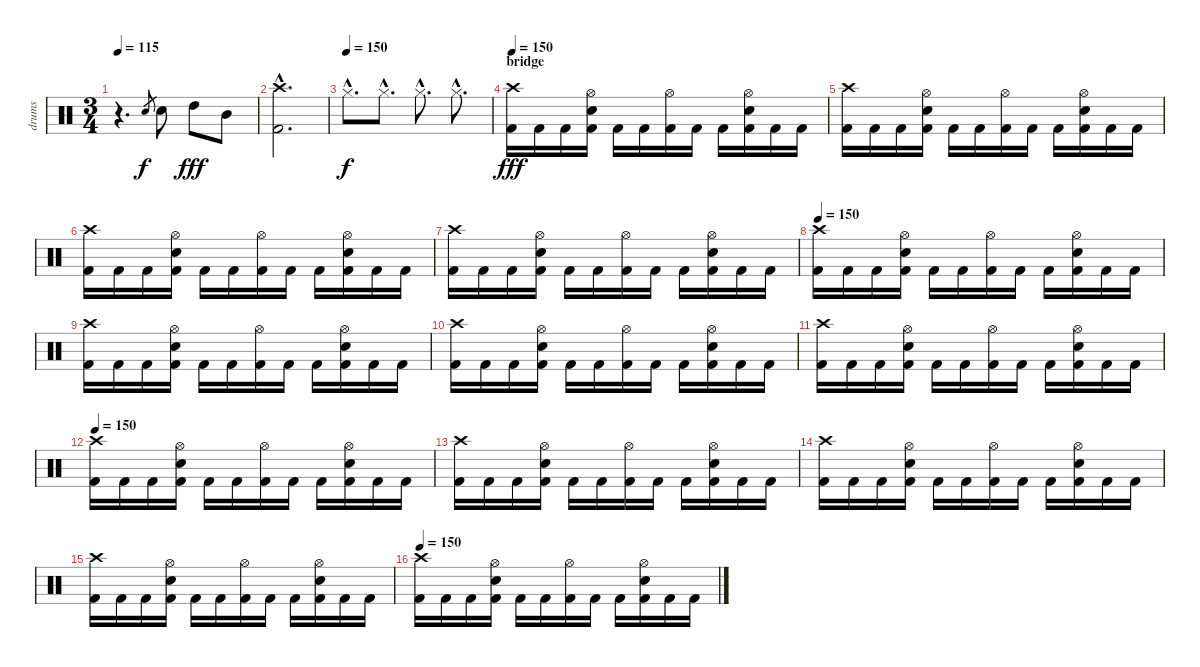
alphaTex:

\track ("drums" "drums") {instrument percussion}
\staff {score}
\articulation defaults
\ts (3 4)
\tempo 115
\clef neutral
\ks c
r.4{d dy fff} "Snare (hit) 2".8{gr dy f} "Snare (hit) 2".8 "High Tom (hit)".8{dy fff} "Mid Tom (hit)".8 |
("Crash high (hit)"{hac} "Kick (hit) 2"{hac}).2{d} |
\tempo (150)
"Hi-Hat (closed)"{hac}.8{d dy f} "Hi-Hat (closed)"{hac}.8{d} "Hi-Hat (closed)"{hac}.8{d} "Hi-Hat (closed)"{hac}.8{d} |
\section ("" "bridge")
\tempo 150
("Crash high (hit)" "Kick (hit) 2").16{dy fff} "Kick (hit) 2".16 "Kick (hit) 2".16 ("Hi-Hat (open)" "Snare (hit) 2" "Kick (hit) 2").16 "Kick (hit) 2".16 "Kick (hit) 2".16 ("Hi-Hat (open)" "Kick (hit) 2").16 "Kick (hit) 2".16 "Kick (hit) 2".16 ("Hi-Hat (open)" "Snare (hit) 2" "Kick (hit) 2").16 "Kick (hit) 2".16 "Kick (hit) 2".16 |
("Crash high (hit)" "Kick (hit) 2").16 "Kick (hit) 2".16 "Kick (hit) 2".16 ("Hi-Hat (open)" "Snare (hit) 2" "Kick (hit) 2").16 "Kick (hit) 2".16 "Kick (hit) 2".16 ("Hi-Hat (open)" "Kick (hit) 2").16 "Kick (hit) 2".16 "Kick (hit) 2".16 ("Hi-Hat (open)" "Snare (hit) 2" "Kick (hit) 2").16 "Kick (hit) 2".16 "Kick (hit) 2".16 |
("Crash high (hit)" "Kick (hit) 2").16 "Kick (hit) 2".16 "Kick (hit) 2".16 ("Hi-Hat (open)" "Snare (hit) 2" "Kick (hit) 2").16 "Kick (hit) 2".16 "Kick (hit) 2".16 ("Hi-Hat (open)" "Kick (hit) 2").16 "Kick (hit) 2".16 "Kick (hit) 2".16 ("Hi-Hat (open)" "Snare (hit) 2" "Kick (hit) 2").16 "Kick (hit) 2".16 "Kick (hit) 2".16 |
("Crash high (hit)" "Kick (hit) 2").16 "Kick (hit) 2".16 "Kick (hit) 2".16 ("Hi-Hat (open)" "Snare (hit) 2" "Kick (hit) 2").16 "Kick (hit) 2".16 "Kick (hit) 2".16 ("Hi-Hat (open)" "Kick (hit) 2").16 "Kick (hit) 2".16 "Kick (hit) 2".16 ("Hi-Hat (open)" "Snare (hit) 2" "Kick (hit) 2").16 "Kick (hit) 2".16 "Kick (hit) 2".16 |
\tempo 150
("Crash high (hit)" "Kick (hit) 2").16 "Kick (hit) 2".16 "Kick (hit) 2".16 ("Hi-Hat (open)" "Snare (hit) 2" "Kick (hit) 2").16 "Kick (hit) 2".16 "Kick (hit) 2".16 ("Hi-Hat (open)" "Kick (hit) 2").16 "Kick (hit) 2".16 "Kick (hit) 2".16 ("Hi-Hat (open)" "Snare (hit) 2" "Kick (hit) 2").16 "Kick (hit) 2".16 "Kick (hit) 2".16 |
("Crash high (hit)" "Kick (hit) 2").16 "Kick (hit) 2".16 "Kick (hit) 2".16 ("Hi-Hat (open)" "Snare (hit) 2" "Kick (hit) 2").16 "Kick (hit) 2".16 "Kick (hit) 2".16 ("Hi-Hat (open)" "Kick (hit) 2").16 "Kick (hit) 2".16 "Kick (hit) 2".16 ("Hi-Hat (open)" "Snare (hit) 2" "Kick (hit) 2").16 "Kick (hit) 2".16 "Kick (hit) 2".16 |
("Crash high (hit)" "Kick (hit) 2").16 "Kick (hit) 2".16 "Kick (hit) 2".16 ("Hi-Hat (open)" "Snare (hit) 2" "Kick (hit) 2").16 "Kick (hit) 2".16 "Kick (hit) 2".16 ("Hi-Hat (open)" "Kick (hit) 2").16 "Kick (hit) 2".16 "Kick (hit) 2".16 ("Hi-Hat (open)" "Snare (hit) 2" "Kick (hit) 2").16 "Kick (hit) 2".16 "Kick (hit) 2".16 |
("Crash high (hit)" "Kick (hit) 2").16 "Kick (hit) 2".16 "Kick (hit) 2".16 ("Hi-Hat (open)" "Snare (hit) 2" "Kick (hit) 2").16 "Kick (hit) 2".16 "Kick (hit) 2".16 ("Hi-Hat (open)" "Kick (hit) 2").16 "Kick (hit) 2".16 "Kick (hit) 2".16 ("Hi-Hat (open)" "Snare (hit) 2" "Kick (hit) 2").16 "Kick (hit) 2".16 "Kick (hit) 2".16 |
\tempo 150
("Crash high (hit)" "Kick (hit) 2").16 "Kick (hit) 2".16 "Kick (hit) 2".16 ("Hi-Hat (open)" "Snare (hit) 2" "Kick (hit) 2").16 "Kick (hit) 2".16 "Kick (hit) 2".16 ("Hi-Hat (open)" "Kick (hit) 2").16 "Kick (hit) 2".16 "Kick (hit) 2".16 ("Hi-Hat (open)" "Snare (hit) 2" "Kick (hit) 2").16 "Kick (hit) 2".16 "Kick (hit) 2".16 |
("Crash high (hit)" "Kick (hit) 2").16 "Kick (hit) 2".16 "Kick (hit) 2".16 ("Hi-Hat (open)" "Snare (hit) 2" "Kick (hit) 2").16 "Kick (hit) 2".16 "Kick (hit) 2".16 ("Hi-Hat (open)" "Kick (hit) 2").16 "Kick (hit) 2".16 "Kick (hit) 2".16 ("Hi-Hat (open)" "Snare (hit) 2" "Kick (hit) 2").16 "Kick (hit) 2".16 "Kick (hit) 2".16 |
("Crash high (hit)" "Kick (hit) 2").16 "Kick (hit) 2".16 "Kick (hit) 2".16 ("Hi-Hat (open)" "Snare (hit) 2" "Kick (hit) 2").16 "Kick (hit) 2".16 "Kick (hit) 2".16 ("Hi-Hat (open)" "Kick (hit) 2").16 "Kick (hit) 2".16 "Kick (hit) 2".16 ("Hi-Hat (open)" "Snare (hit) 2" "Kick (hit) 2").16 "Kick (hit) 2".16 "Kick (hit) 2".16 |
("Crash high (hit)" "Kick (hit) 2").16 "Kick (hit) 2".16 "Kick (hit) 2".16 ("Hi-Hat (open)" "Snare (hit) 2" "Kick (hit) 2").16 "Kick (hit) 2".16 "Kick (hit) 2".16 ("Hi-Hat (open)" "Kick (hit) 2").16 "Kick (hit) 2".16 "Kick (hit) 2".16 ("Hi-Hat (open)" "Snare (hit) 2" "Kick (hit) 2").16 "Kick (hit) 2".16 "Kick (hit) 2".16 |
\tempo 150
("Crash high (hit)" "Kick (hit) 2").16 "Kick (hit) 2".16 "Kick (hit) 2".16 ("Hi-Hat (open)" "Snare (hit) 2" "Kick (hit) 2").16 "Kick (hit) 2".16 "Kick (hit) 2".16 ("Hi-Hat (open)" "Kick (hit) 2").16 "Kick (hit) 2".16 "Kick (hit) 2".16 ("Hi-Hat (open)" "Snare (hit) 2" "Kick (hit) 2").16 "Kick (hit) 2".16 "Kick (hit) 2".16
